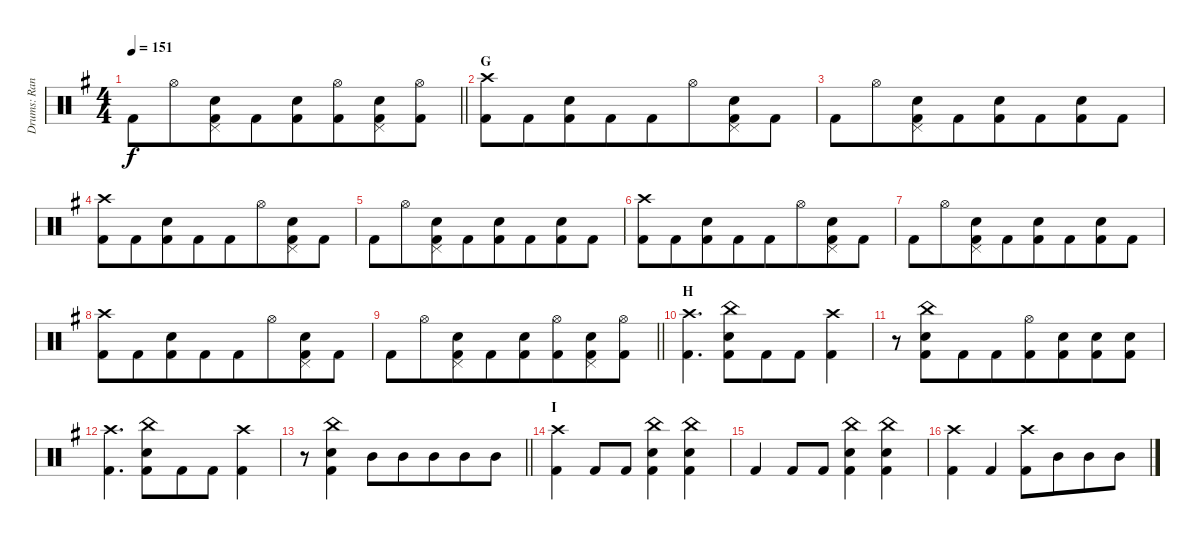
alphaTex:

\track ("Drums: Randy" "Drums: Ran") {instrument percussion}
\staff {score}
\articulation defaults
\ts (4 4)
\tempo 151
\clef neutral
\barLineRight lightlight
\ks g "Kick (hit) 2".8{dy f} "Hi-Hat (open)".8{beam merge}
("Pedal Hi-Hat (hit)" "Snare (hit) 2" "Kick (hit) 2").8 "Kick (hit) 2".8{beam merge} ("Snare (hit) 2" "Kick (hit) 2").8 ("Hi-Hat (open)" "Kick (hit) 2").8{beam merge} ("Pedal Hi-Hat (hit)" "Snare (hit) 2" "Kick (hit) 2").8 ("Hi-Hat (open)" "Kick (hit) 2").8 |
\section ("" "G")
("Crash high (hit)" "Kick (hit) 2").8 "Kick (hit) 2".8{beam merge} ("Snare (hit) 2" "Kick (hit) 2").8 "Kick (hit) 2".8{beam merge} "Kick (hit) 2".8 "Hi-Hat (open)".8{beam merge} ("Pedal Hi-Hat (hit)" "Snare (hit) 2" "Kick (hit) 2").8 "Kick (hit) 2".8 |
"Kick (hit) 2".8 "Hi-Hat (open)".8{beam merge} ("Pedal Hi-Hat (hit)" "Snare (hit) 2" "Kick (hit) 2").8 "Kick (hit) 2".8{beam merge} ("Snare (hit) 2" "Kick (hit) 2").8 "Kick (hit) 2".8{beam merge} ("Snare (hit) 2" "Kick (hit) 2").8 "Kick (hit) 2".8 |
("Crash high (hit)" "Kick (hit) 2").8 "Kick (hit) 2".8{beam merge} ("Snare (hit) 2" "Kick (hit) 2").8 "Kick (hit) 2".8{beam merge} "Kick (hit) 2".8 "Hi-Hat (open)".8{beam merge} ("Pedal Hi-Hat (hit)" "Snare (hit) 2" "Kick (hit) 2").8 "Kick (hit) 2".8 |
"Kick (hit) 2".8 "Hi-Hat (open)".8{beam merge} ("Pedal Hi-Hat (hit)" "Snare (hit) 2" "Kick (hit) 2").8 "Kick (hit) 2".8{beam merge} ("Snare (hit) 2" "Kick (hit) 2").8 "Kick (hit) 2".8{beam merge} ("Snare (hit) 2" "Kick (hit) 2").8 "Kick (hit) 2".8 |
("Crash high (hit)" "Kick (hit) 2").8 "Kick (hit) 2".8{beam merge} ("Snare (hit) 2" "Kick (hit) 2").8 "Kick (hit) 2".8{beam merge} "Kick (hit) 2".8 "Hi-Hat (open)".8{beam merge} ("Pedal Hi-Hat (hit)" "Snare (hit) 2" "Kick (hit) 2").8 "Kick (hit) 2".8 |
"Kick (hit) 2".8 "Hi-Hat (open)".8{beam merge} ("Pedal Hi-Hat (hit)" "Snare (hit) 2" "Kick (hit) 2").8 "Kick (hit) 2".8{beam merge} ("Snare (hit) 2" "Kick (hit) 2").8 "Kick (hit) 2".8{beam merge} ("Snare (hit) 2" "Kick (hit) 2").8 "Kick (hit) 2".8 |
("Crash high (hit)" "Kick (hit) 2").8 "Kick (hit) 2".8{beam merge} ("Snare (hit) 2" "Kick (hit) 2").8 "Kick (hit) 2".8{beam merge} "Kick (hit) 2".8 "Hi-Hat (open)".8{beam merge} ("Pedal Hi-Hat (hit)" "Snare (hit) 2" "Kick (hit) 2").8 "Kick (hit) 2".8 |
\barLineRight lightlight "Kick (hit) 2".8 "Hi-Hat (open)".8{beam merge}
("Pedal Hi-Hat (hit)" "Snare (hit) 2" "Kick (hit) 2").8 "Kick (hit) 2".8{beam merge} ("Snare (hit) 2" "Kick (hit) 2").8 ("Hi-Hat (open)" "Kick (hit) 2").8{beam merge} ("Pedal Hi-Hat (hit)" "Snare (hit) 2" "Kick (hit) 2").8 ("Hi-Hat (open)" "Kick (hit) 2").8 |
\section ("" "H")
("Crash high (hit)" "Kick (hit) 2").4{d} ("China (hit)" "Snare (hit) 2" "Kick (hit) 2").8{beam merge} "Kick (hit) 2".8 "Kick (hit) 2".8 ("Crash high (hit)" "Kick (hit) 2").4 |
r.8 ("China (hit)" "Snare (hit) 2" "Kick (hit) 2").8{beam merge} "Kick (hit) 2".8 "Kick (hit) 2".8{beam merge} ("Hi-Hat (open)" "Kick (hit) 2").8 ("Snare (hit) 2" "Kick (hit) 2").8{beam merge} ("Snare (hit) 2" "Kick (hit) 2").8 ("Snare (hit) 2" "Kick (hit) 2").8 |
("Crash high (hit)" "Kick (hit) 2").4{d} ("China (hit)" "Snare (hit) 2" "Kick (hit) 2").8{beam merge} "Kick (hit) 2".8 "Kick (hit) 2".8 ("Crash high (hit)" "Kick (hit) 2").4 |
\barLineRight lightlight
r.8 ("China (hit)" "Snare (hit) 2" "Kick (hit) 2").4 "Mid Tom (hit)".8{beam merge} "Mid Tom (hit)".8 "Mid Tom (hit)".8{beam merge} "Mid Tom (hit)".8 "Mid Tom (hit)".8 |
\section ("" "I")
("Crash high (hit)" "Kick (hit) 2").4 "Kick (hit) 2".8 "Kick (hit) 2".8 ("China (hit)" "Snare (hit) 2" "Kick (hit) 2").4 ("China (hit)" "Snare (hit) 2" "Kick (hit) 2").4 |
"Kick (hit) 2".4 "Kick (hit) 2".8 "Kick (hit) 2".8 ("China (hit)" "Snare (hit) 2" "Kick (hit) 2").4 ("China (hit)" "Snare (hit) 2" "Kick (hit) 2").4 |
("Crash high (hit)" "Kick (hit) 2").4 "Kick (hit) 2".4 ("Crash high (hit)" "Kick (hit) 2").8 "Mid Tom (hit)".8{beam merge} "Mid Tom (hit)".8 "Mid Tom (hit)".8
